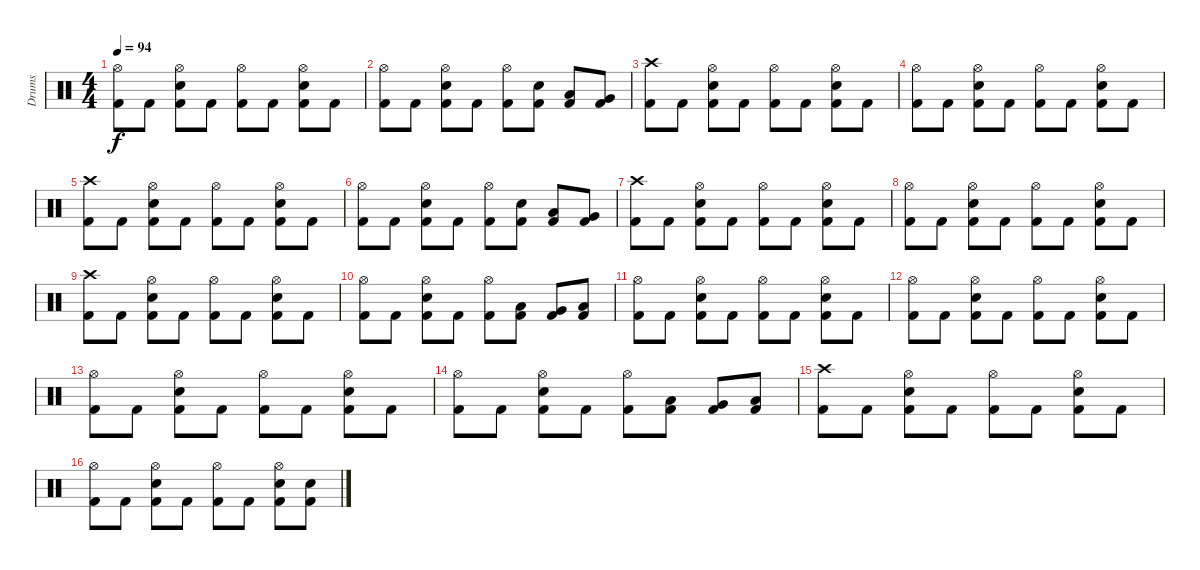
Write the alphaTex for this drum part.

\track ("Drums" "Drums") {instrument percussion}
\staff {score}
\articulation defaults
\ts (4 4)
\tempo 94
\clef neutral
\ks c
("Hi-Hat (open)" "Kick (hit) 2").8{dy f} "Kick (hit) 2".8 ("Hi-Hat (open)" "Snare (hit) 2" "Kick (hit) 2").8 "Kick (hit) 2".8 ("Hi-Hat (open)" "Kick (hit) 2").8 "Kick (hit) 2".8 ("Hi-Hat (open)" "Snare (hit) 2" "Kick (hit) 2").8 "Kick (hit) 2".8 |
("Hi-Hat (open)" "Kick (hit) 2").8 "Kick (hit) 2".8 ("Hi-Hat (open)" "Snare (hit) 2" "Kick (hit) 2").8 "Kick (hit) 2".8 ("Hi-Hat (open)" "Kick (hit) 2").8 ("Snare (hit) 2" "Kick (hit) 2").8 ("Low Tom (hit)" "Kick (hit) 2").8 ("Very Low Tom (hit)" "Kick (hit) 2").8 |
("Crash high (hit)" "Kick (hit) 2").8 "Kick (hit) 2".8 ("Hi-Hat (open)" "Snare (hit) 2" "Kick (hit) 2").8 "Kick (hit) 2".8 ("Hi-Hat (open)" "Kick (hit) 2").8 "Kick (hit) 2".8 ("Hi-Hat (open)" "Snare (hit) 2" "Kick (hit) 2").8 "Kick (hit) 2".8 |
("Hi-Hat (open)" "Kick (hit) 2").8 "Kick (hit) 2".8 ("Hi-Hat (open)" "Snare (hit) 2" "Kick (hit) 2").8 "Kick (hit) 2".8 ("Hi-Hat (open)" "Kick (hit) 2").8 "Kick (hit) 2".8 ("Hi-Hat (open)" "Snare (hit) 2" "Kick (hit) 2").8 "Kick (hit) 2".8 |
("Crash high (hit)" "Kick (hit) 2").8 "Kick (hit) 2".8 ("Hi-Hat (open)" "Snare (hit) 2" "Kick (hit) 2").8 "Kick (hit) 2".8 ("Hi-Hat (open)" "Kick (hit) 2").8 "Kick (hit) 2".8 ("Hi-Hat (open)" "Snare (hit) 2" "Kick (hit) 2").8 "Kick (hit) 2".8 |
("Hi-Hat (open)" "Kick (hit) 2").8 "Kick (hit) 2".8 ("Hi-Hat (open)" "Snare (hit) 2" "Kick (hit) 2").8 "Kick (hit) 2".8 ("Hi-Hat (open)" "Kick (hit) 2").8 ("Snare (hit) 2" "Kick (hit) 2").8 ("Low Tom (hit)" "Kick (hit) 2").8 ("Very Low Tom (hit)" "Kick (hit) 2").8 |
("Crash high (hit)" "Kick (hit) 2").8 "Kick (hit) 2".8 ("Hi-Hat (open)" "Snare (hit) 2" "Kick (hit) 2").8 "Kick (hit) 2".8 ("Hi-Hat (open)" "Kick (hit) 2").8 "Kick (hit) 2".8 ("Hi-Hat (open)" "Snare (hit) 2" "Kick (hit) 2").8 "Kick (hit) 2".8 |
("Hi-Hat (open)" "Kick (hit) 2").8 "Kick (hit) 2".8 ("Hi-Hat (open)" "Snare (hit) 2" "Kick (hit) 2").8 "Kick (hit) 2".8 ("Hi-Hat (open)" "Kick (hit) 2").8 "Kick (hit) 2".8 ("Hi-Hat (open)" "Snare (hit) 2" "Kick (hit) 2").8 "Kick (hit) 2".8 |
("Crash high (hit)" "Kick (hit) 2").8 "Kick (hit) 2".8 ("Hi-Hat (open)" "Snare (hit) 2" "Kick (hit) 2").8 "Kick (hit) 2".8 ("Hi-Hat (open)" "Kick (hit) 2").8 "Kick (hit) 2".8 ("Hi-Hat (open)" "Snare (hit) 2" "Kick (hit) 2").8 "Kick (hit) 2".8 |
("Hi-Hat (open)" "Kick (hit) 2").8 "Kick (hit) 2".8 ("Hi-Hat (open)" "Snare (hit) 2" "Kick (hit) 2").8 "Kick (hit) 2".8 ("Hi-Hat (open)" "Kick (hit) 2").8 ("Low Tom (hit)" "Kick (hit) 2").8 ("Very Low Tom (hit)" "Kick (hit) 2").8 ("Low Floor Tom (hit)" "Kick (hit) 2").8 |
("Hi-Hat (open)" "Kick (hit) 2").8 "Kick (hit) 2".8 ("Hi-Hat (open)" "Snare (hit) 2" "Kick (hit) 2").8 "Kick (hit) 2".8 ("Hi-Hat (open)" "Kick (hit) 2").8 "Kick (hit) 2".8 ("Hi-Hat (open)" "Snare (hit) 2" "Kick (hit) 2").8 "Kick (hit) 2".8 |
("Hi-Hat (open)" "Kick (hit) 2").8 "Kick (hit) 2".8 ("Hi-Hat (open)" "Snare (hit) 2" "Kick (hit) 2").8 "Kick (hit) 2".8 ("Hi-Hat (open)" "Kick (hit) 2").8 "Kick (hit) 2".8 ("Hi-Hat (open)" "Snare (hit) 2" "Kick (hit) 2").8 "Kick (hit) 2".8 |
("Hi-Hat (open)" "Kick (hit) 2").8 "Kick (hit) 2".8 ("Hi-Hat (open)" "Snare (hit) 2" "Kick (hit) 2").8 "Kick (hit) 2".8 ("Hi-Hat (open)" "Kick (hit) 2").8 "Kick (hit) 2".8 ("Hi-Hat (open)" "Snare (hit) 2" "Kick (hit) 2").8 "Kick (hit) 2".8 |
("Hi-Hat (open)" "Kick (hit) 2").8 "Kick (hit) 2".8 ("Hi-Hat (open)" "Snare (hit) 2" "Kick (hit) 2").8 "Kick (hit) 2".8 ("Hi-Hat (open)" "Kick (hit) 2").8 ("Low Tom (hit)" "Kick (hit) 2").8 ("Very Low Tom (hit)" "Kick (hit) 2").8 ("Low Floor Tom (hit)" "Kick (hit) 2").8 |
("Crash high (hit)" "Kick (hit) 2").8 "Kick (hit) 2".8 ("Hi-Hat (open)" "Snare (hit) 2" "Kick (hit) 2").8 "Kick (hit) 2".8 ("Hi-Hat (open)" "Kick (hit) 2").8 "Kick (hit) 2".8 ("Hi-Hat (open)" "Snare (hit) 2" "Kick (hit) 2").8 "Kick (hit) 2".8 |
("Hi-Hat (open)" "Kick (hit) 2").8 "Kick (hit) 2".8 ("Hi-Hat (open)" "Snare (hit) 2" "Kick (hit) 2").8 "Kick (hit) 2".8 ("Hi-Hat (open)" "Kick (hit) 2").8 "Kick (hit) 2".8 ("Hi-Hat (open)" "Snare (hit) 2" "Kick (hit) 2").8 ("Snare (hit) 2" "Kick (hit) 2").8
